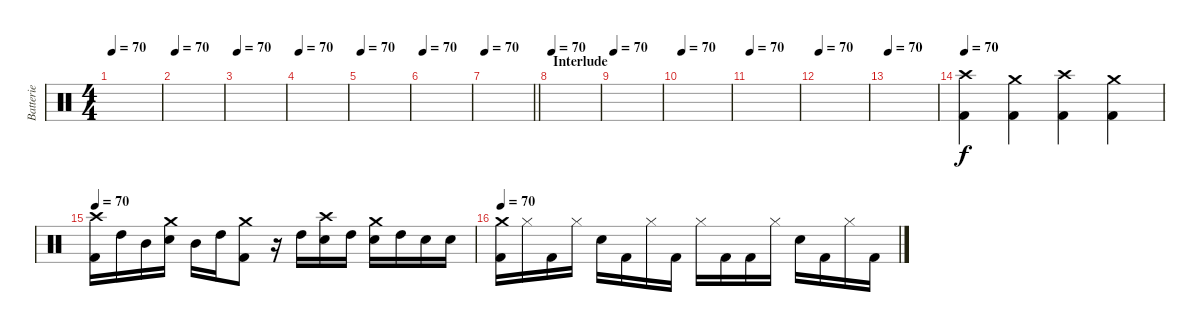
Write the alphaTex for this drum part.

\track ("Batterie" "Batterie") {instrument percussion}
\staff {score}
\articulation defaults
\ts (4 4)
\tempo 70
\clef neutral
\ks c
|
\tempo 70
|
\tempo 70
|
\tempo 70
|
\tempo 70
|
\tempo 70
|
\tempo 70
\barLineRight lightlight
|
\section ("" "Interlude")
\tempo 70
|
\tempo 70
|
\tempo 70
|
\tempo 70
|
\tempo 70
|
\tempo 70
|
\tempo 70
("Crash high (hit)" "Kick (hit) 2").4 ("Crash medium (hit)" "Kick (hit) 2").4 ("Crash high (hit)" "Kick (hit) 2").4 ("Crash medium (hit)" "Kick (hit) 2").4 |
\tempo 70
("Crash high (hit)" "Kick (hit) 2").16 "High Tom (hit)".16 "Mid Tom (hit)".16 ("Crash medium (hit)" "Electric Snare (hit)").16 "Mid Tom (hit)".16 "High Tom (hit)".16 ("Crash medium (hit)" "Kick (hit) 2").8 r.16 "High Tom (hit)".16 ("Crash high (hit)" "Electric Snare (hit)").16 "High Tom (hit)".16 ("Crash medium (hit)" "Electric Snare (hit)").16 "High Tom (hit)".16 "Electric Snare (hit)".16 "Electric Snare (hit)".16 |
\tempo 70
("Crash medium (hit)" "Kick (hit) 2").16 "Hi-Hat (closed)".16 "Kick (hit) 2".16 "Hi-Hat (closed)".16 "Electric Snare (hit)".16 "Kick (hit) 2".16 "Hi-Hat (closed)".16 "Kick (hit) 2".16 "Hi-Hat (closed)".16 "Kick (hit) 2".16 "Kick (hit) 2".16 "Hi-Hat (closed)".16 "Electric Snare (hit)".16 "Kick (hit) 2".16 "Hi-Hat (closed)".16 "Kick (hit) 2".16
